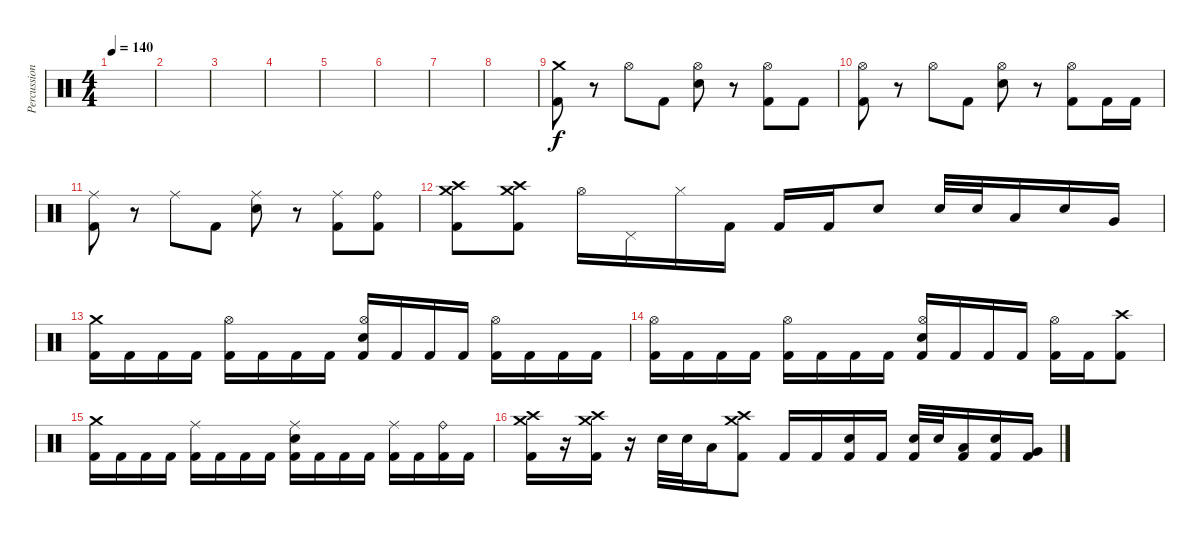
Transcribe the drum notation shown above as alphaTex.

\track ("Percussion" "Percussion") {instrument percussion}
\staff {score}
\articulation defaults
\ts (4 4)
\tempo 140
\clef neutral
\ks c
|
|
|
|
|
|
|
|
("Crash medium (hit)" "Kick (hit) 2").8 r.8 "Hi-Hat (open)".8 "Kick (hit) 2".8 ("Hi-Hat (open)" "Electric Snare (hit)").8 r.8 ("Hi-Hat (open)" "Kick (hit) 2").8 "Kick (hit) 2".8 |
("Hi-Hat (open)" "Kick (hit) 2").8 r.8 "Hi-Hat (open)".8 "Kick (hit) 2".8 ("Hi-Hat (open)" "Electric Snare (hit)").8 r.8 ("Hi-Hat (open)" "Kick (hit) 2").8 "Kick (hit) 2".16 "Kick (hit) 2".16 |
("Ride (middle)" "Kick (hit) 2").8 r.8 "Ride (middle)".8 "Kick (hit) 2".8 ("Ride (middle)" "Electric Snare (hit)").8 r.8 ("Ride (middle)" "Kick (hit) 2").8 ("Ride (bell)" "Kick (hit) 2").8 |
("Crash high (hit)" "Crash medium (hit)" "Kick (hit) 2").8 ("Crash high (hit)" "Crash medium (hit)" "Kick (hit) 2").8 "Hi-Hat (open)".16 "Pedal Hi-Hat (hit)".16 "Hi-Hat (closed)".16 "Kick (hit) 2".16 "Kick (hit) 2".16 "Kick (hit) 2".16 "Electric Snare (hit)".8 "Electric Snare (hit)".32 "Electric Snare (hit)".32 "Low Tom (hit)".16 "Electric Snare (hit)".16 "Very Low Tom (hit)".16 |
("Crash medium (hit)" "Kick (hit) 2").16 "Kick (hit) 2".16 "Kick (hit) 2".16 "Kick (hit) 2".16 ("Hi-Hat (open)" "Kick (hit) 2").16 "Kick (hit) 2".16 "Kick (hit) 2".16 "Kick (hit) 2".16 ("Hi-Hat (open)" "Electric Snare (hit)" "Kick (hit) 2").16 "Kick (hit) 2".16 "Kick (hit) 2".16 "Kick (hit) 2".16 ("Hi-Hat (open)" "Kick (hit) 2").16 "Kick (hit) 2".16 "Kick (hit) 2".16 "Kick (hit) 2".16 |
("Hi-Hat (open)" "Kick (hit) 2").16 "Kick (hit) 2".16 "Kick (hit) 2".16 "Kick (hit) 2".16 ("Hi-Hat (open)" "Kick (hit) 2").16 "Kick (hit) 2".16 "Kick (hit) 2".16 "Kick (hit) 2".16 ("Hi-Hat (open)" "Electric Snare (hit)" "Kick (hit) 2").16 "Kick (hit) 2".16 "Kick (hit) 2".16 "Kick (hit) 2".16 ("Hi-Hat (open)" "Kick (hit) 2").16 "Kick (hit) 2".16 ("Crash high (hit)" "Kick (hit) 2").8 |
("Crash medium (hit)" "Kick (hit) 2").16 "Kick (hit) 2".16 "Kick (hit) 2".16 "Kick (hit) 2".16 ("Ride (middle)" "Kick (hit) 2").16 "Kick (hit) 2".16 "Kick (hit) 2".16 "Kick (hit) 2".16 ("Ride (middle)" "Electric Snare (hit)" "Kick (hit) 2").16 "Kick (hit) 2".16 "Kick (hit) 2".16 "Kick (hit) 2".16 ("Ride (middle)" "Kick (hit) 2").16 "Kick (hit) 2".16 ("Ride (bell)" "Kick (hit) 2").16 "Kick (hit) 2".16 |
("Crash high (hit)" "Crash medium (hit)" "Kick (hit) 2").16 r.16 ("Crash high (hit)" "Crash medium (hit)" "Kick (hit) 2").16 r.16 "Electric Snare (hit)".32 "Electric Snare (hit)".32 "Low Tom (hit)".16 ("Crash high (hit)" "Crash medium (hit)" "Kick (hit) 2").8 "Kick (hit) 2".16 "Kick (hit) 2".16 ("Electric Snare (hit)" "Kick (hit) 2").16 "Kick (hit) 2".16 ("Electric Snare (hit)" "Kick (hit) 2").32 "Electric Snare (hit)".32 ("Low Tom (hit)" "Kick (hit) 2").16 ("Electric Snare (hit)" "Kick (hit) 2").16 ("Very Low Tom (hit)" "Kick (hit) 2").16
